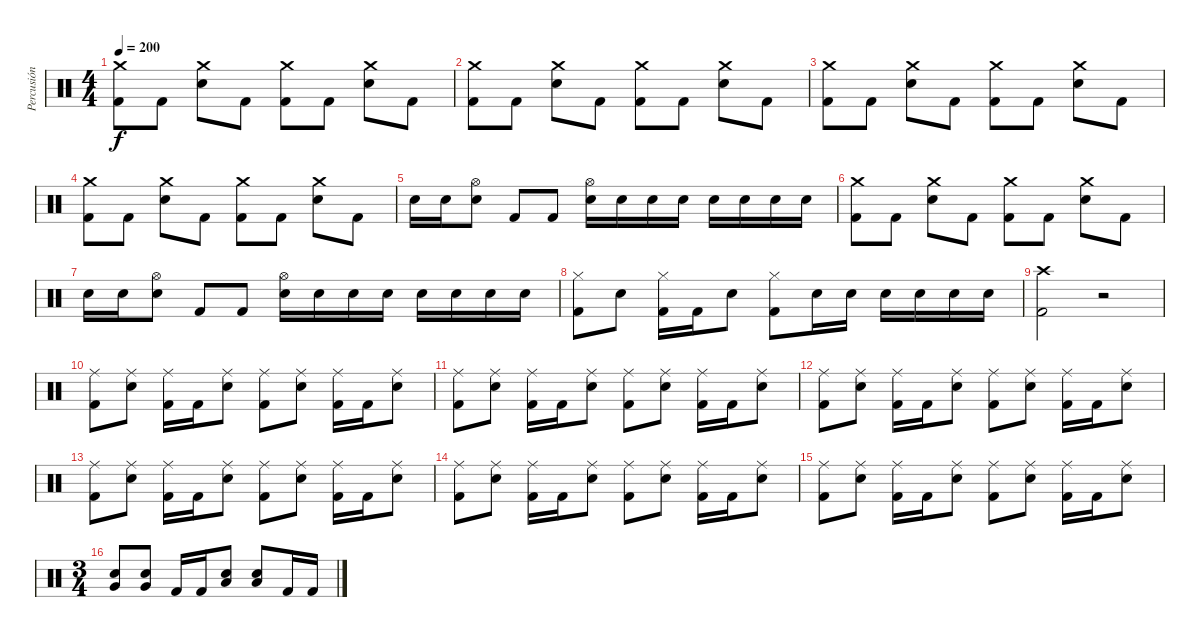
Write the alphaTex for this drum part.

\track ("Percusión" "Percusión") {instrument percussion}
\staff {score}
\articulation defaults
\ts (4 4)
\tempo 200
\clef neutral
\ks c
("Crash medium (hit)" "Kick (hit) 2").8{dy f} "Kick (hit) 2".8 ("Crash medium (hit)" "Electric Snare (hit)").8 "Kick (hit) 2".8 ("Crash medium (hit)" "Kick (hit) 2").8 "Kick (hit) 2".8 ("Crash medium (hit)" "Electric Snare (hit)").8 "Kick (hit) 2".8 |
("Crash medium (hit)" "Kick (hit) 2").8 "Kick (hit) 2".8 ("Crash medium (hit)" "Electric Snare (hit)").8 "Kick (hit) 2".8 ("Crash medium (hit)" "Kick (hit) 2").8 "Kick (hit) 2".8 ("Crash medium (hit)" "Electric Snare (hit)").8 "Kick (hit) 2".8 |
("Crash medium (hit)" "Kick (hit) 2").8 "Kick (hit) 2".8 ("Crash medium (hit)" "Electric Snare (hit)").8 "Kick (hit) 2".8 ("Crash medium (hit)" "Kick (hit) 2").8 "Kick (hit) 2".8 ("Crash medium (hit)" "Electric Snare (hit)").8 "Kick (hit) 2".8 |
("Crash medium (hit)" "Kick (hit) 2").8 "Kick (hit) 2".8 ("Crash medium (hit)" "Electric Snare (hit)").8 "Kick (hit) 2".8 ("Crash medium (hit)" "Kick (hit) 2").8 "Kick (hit) 2".8 ("Crash medium (hit)" "Electric Snare (hit)").8 "Kick (hit) 2".8 |
"Electric Snare (hit)".16 "Electric Snare (hit)".16 ("Electric Snare (hit)" "Hi-Hat (open)").8 "Kick (hit) 2".8 "Kick (hit) 2".8 ("Electric Snare (hit)" "Hi-Hat (open)").16 "Electric Snare (hit)".16 "Electric Snare (hit)".16 "Electric Snare (hit)".16 "Electric Snare (hit)".16 "Electric Snare (hit)".16 "Electric Snare (hit)".16 "Electric Snare (hit)".16 |
("Crash medium (hit)" "Kick (hit) 2").8 "Kick (hit) 2".8 ("Crash medium (hit)" "Electric Snare (hit)").8 "Kick (hit) 2".8 ("Crash medium (hit)" "Kick (hit) 2").8 "Kick (hit) 2".8 ("Crash medium (hit)" "Electric Snare (hit)").8 "Kick (hit) 2".8 |
"Electric Snare (hit)".16 "Electric Snare (hit)".16 ("Electric Snare (hit)" "Hi-Hat (open)").8 "Kick (hit) 2".8 "Kick (hit) 2".8 ("Electric Snare (hit)" "Hi-Hat (open)").16 "Electric Snare (hit)".16 "Electric Snare (hit)".16 "Electric Snare (hit)".16 "Electric Snare (hit)".16 "Electric Snare (hit)".16 "Electric Snare (hit)".16 "Electric Snare (hit)".16 |
("Hi-Hat (closed)" "Kick (hit) 2").8 "Electric Snare (hit)".8 ("Hi-Hat (closed)" "Kick (hit) 2").16 "Kick (hit) 2".16 "Electric Snare (hit)".8 ("Hi-Hat (closed)" "Kick (hit) 2").8 "Electric Snare (hit)".16 "Electric Snare (hit)".16 "Electric Snare (hit)".16 "Electric Snare (hit)".16 "Electric Snare (hit)".16 "Electric Snare (hit)".16 |
("Crash high (hit)" "Kick (hit) 2").2 r.2 |
("Ride (middle)" "Kick (hit) 2").8 ("Ride (middle)" "Electric Snare (hit)").8 ("Ride (middle)" "Kick (hit) 2").16 "Kick (hit) 2".16 ("Ride (middle)" "Electric Snare (hit)").8 ("Ride (middle)" "Kick (hit) 2").8 ("Ride (middle)" "Electric Snare (hit)").8 ("Ride (middle)" "Kick (hit) 2").16 "Kick (hit) 2".16 ("Ride (middle)" "Electric Snare (hit)").8 |
("Ride (middle)" "Kick (hit) 2").8 ("Ride (middle)" "Electric Snare (hit)").8 ("Ride (middle)" "Kick (hit) 2").16 "Kick (hit) 2".16 ("Ride (middle)" "Electric Snare (hit)").8 ("Ride (middle)" "Kick (hit) 2").8 ("Ride (middle)" "Electric Snare (hit)").8 ("Ride (middle)" "Kick (hit) 2").16 "Kick (hit) 2".16 ("Ride (middle)" "Electric Snare (hit)").8 |
("Ride (middle)" "Kick (hit) 2").8 ("Ride (middle)" "Electric Snare (hit)").8 ("Ride (middle)" "Kick (hit) 2").16 "Kick (hit) 2".16 ("Ride (middle)" "Electric Snare (hit)").8 ("Ride (middle)" "Kick (hit) 2").8 ("Ride (middle)" "Electric Snare (hit)").8 ("Ride (middle)" "Kick (hit) 2").16 "Kick (hit) 2".16 ("Ride (middle)" "Electric Snare (hit)").8 |
("Ride (middle)" "Kick (hit) 2").8 ("Ride (middle)" "Electric Snare (hit)").8 ("Ride (middle)" "Kick (hit) 2").16 "Kick (hit) 2".16 ("Ride (middle)" "Electric Snare (hit)").8 ("Ride (middle)" "Kick (hit) 2").8 ("Ride (middle)" "Electric Snare (hit)").8 ("Ride (middle)" "Kick (hit) 2").16 "Kick (hit) 2".16 ("Ride (middle)" "Electric Snare (hit)").8 |
("Ride (middle)" "Kick (hit) 2").8 ("Ride (middle)" "Electric Snare (hit)").8 ("Ride (middle)" "Kick (hit) 2").16 "Kick (hit) 2".16 ("Ride (middle)" "Electric Snare (hit)").8 ("Ride (middle)" "Kick (hit) 2").8 ("Ride (middle)" "Electric Snare (hit)").8 ("Ride (middle)" "Kick (hit) 2").16 "Kick (hit) 2".16 ("Ride (middle)" "Electric Snare (hit)").8 |
("Ride (middle)" "Kick (hit) 2").8 ("Ride (middle)" "Electric Snare (hit)").8 ("Ride (middle)" "Kick (hit) 2").16 "Kick (hit) 2".16 ("Ride (middle)" "Electric Snare (hit)").8 ("Ride (middle)" "Kick (hit) 2").8 ("Ride (middle)" "Electric Snare (hit)").8 ("Ride (middle)" "Kick (hit) 2").16 "Kick (hit) 2".16 ("Ride (middle)" "Electric Snare (hit)").8 |
\ts (3 4)
("Very Low Tom (hit)" "Electric Snare (hit)").8 ("Very Low Tom (hit)" "Electric Snare (hit)").8 "Kick (hit) 2".16 "Kick (hit) 2".16 ("Low Tom (hit)" "Electric Snare (hit)").8 ("Low Tom (hit)" "Electric Snare (hit)").8 "Kick (hit) 2".16 "Kick (hit) 2".16
